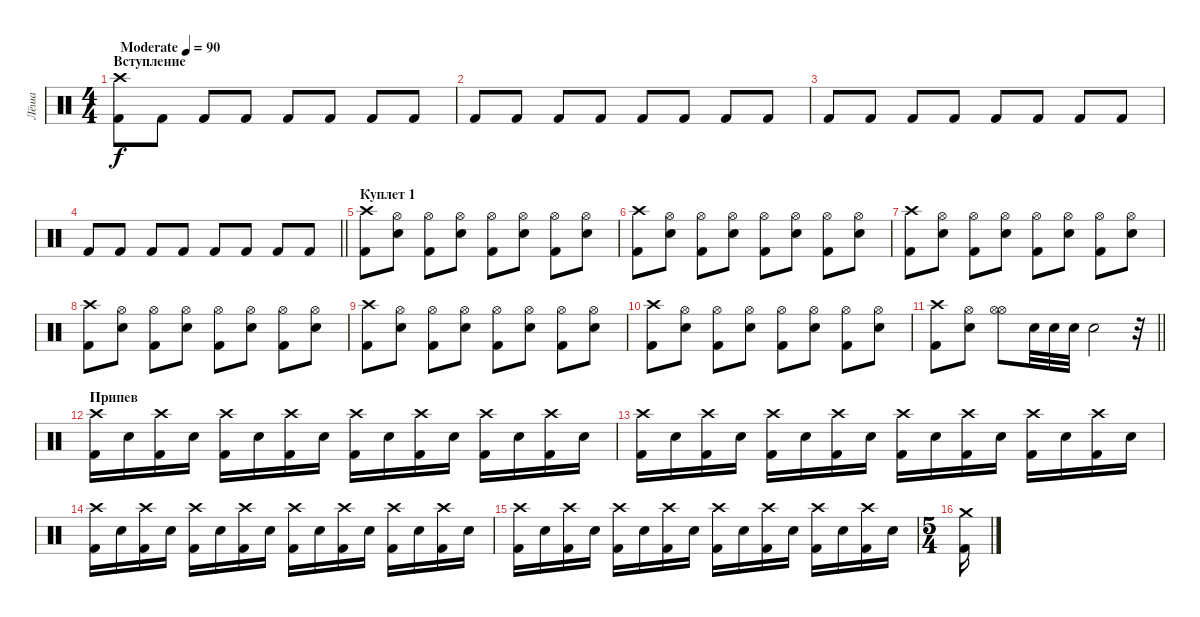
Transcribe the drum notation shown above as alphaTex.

\track ("Лёша" "Лёша") {instrument percussion}
\staff {score}
\articulation defaults
\ts (4 4)
\section ("" "Вступление")
\tempo (90 "Moderate")
\clef neutral
\ks c
("Crash high (hit)" "Kick (hit) 2").8{dy f} "Kick (hit) 2".8 "Kick (hit) 2".8 "Kick (hit) 2".8 "Kick (hit) 2".8 "Kick (hit) 2".8 "Kick (hit) 2".8 "Kick (hit) 2".8 |
"Kick (hit) 2".8 "Kick (hit) 2".8 "Kick (hit) 2".8 "Kick (hit) 2".8 "Kick (hit) 2".8 "Kick (hit) 2".8 "Kick (hit) 2".8 "Kick (hit) 2".8 |
"Kick (hit) 2".8 "Kick (hit) 2".8 "Kick (hit) 2".8 "Kick (hit) 2".8 "Kick (hit) 2".8 "Kick (hit) 2".8 "Kick (hit) 2".8 "Kick (hit) 2".8 |
\barLineRight lightlight "Kick (hit) 2".8 "Kick (hit) 2".8 "Kick (hit) 2".8 "Kick (hit) 2".8 "Kick (hit) 2".8 "Kick (hit) 2".8 "Kick (hit) 2".8 "Kick (hit) 2".8
|
\section ("" "Куплет 1")
("Kick (hit) 2" "Crash high (hit)").8 ("Hi-Hat (open)" "Electric Snare (hit)").8 ("Hi-Hat (open)" "Kick (hit) 2").8 ("Hi-Hat (open)" "Electric Snare (hit)").8 ("Hi-Hat (open)" "Kick (hit) 2").8 ("Hi-Hat (open)" "Electric Snare (hit)").8 ("Hi-Hat (open)" "Kick (hit) 2").8 ("Hi-Hat (open)" "Electric Snare (hit)").8 |
("Kick (hit) 2" "Crash high (hit)").8 ("Hi-Hat (open)" "Electric Snare (hit)").8 ("Hi-Hat (open)" "Kick (hit) 2").8 ("Hi-Hat (open)" "Electric Snare (hit)").8 ("Hi-Hat (open)" "Kick (hit) 2").8 ("Hi-Hat (open)" "Electric Snare (hit)").8 ("Hi-Hat (open)" "Kick (hit) 2").8 ("Hi-Hat (open)" "Electric Snare (hit)").8 |
("Kick (hit) 2" "Crash high (hit)").8 ("Hi-Hat (open)" "Electric Snare (hit)").8 ("Hi-Hat (open)" "Kick (hit) 2").8 ("Hi-Hat (open)" "Electric Snare (hit)").8 ("Hi-Hat (open)" "Kick (hit) 2").8 ("Hi-Hat (open)" "Electric Snare (hit)").8 ("Hi-Hat (open)" "Kick (hit) 2").8 ("Hi-Hat (open)" "Electric Snare (hit)").8 |
("Kick (hit) 2" "Crash high (hit)").8 ("Hi-Hat (open)" "Electric Snare (hit)").8 ("Hi-Hat (open)" "Kick (hit) 2").8 ("Hi-Hat (open)" "Electric Snare (hit)").8 ("Hi-Hat (open)" "Kick (hit) 2").8 ("Hi-Hat (open)" "Electric Snare (hit)").8 ("Hi-Hat (open)" "Kick (hit) 2").8 ("Hi-Hat (open)" "Electric Snare (hit)").8 |
("Kick (hit) 2" "Crash high (hit)").8 ("Hi-Hat (open)" "Electric Snare (hit)").8 ("Hi-Hat (open)" "Kick (hit) 2").8 ("Hi-Hat (open)" "Electric Snare (hit)").8 ("Hi-Hat (open)" "Kick (hit) 2").8 ("Hi-Hat (open)" "Electric Snare (hit)").8 ("Hi-Hat (open)" "Kick (hit) 2").8 ("Hi-Hat (open)" "Electric Snare (hit)").8 |
("Kick (hit) 2" "Crash high (hit)").8 ("Hi-Hat (open)" "Electric Snare (hit)").8 ("Hi-Hat (open)" "Kick (hit) 2").8 ("Hi-Hat (open)" "Electric Snare (hit)").8 ("Hi-Hat (open)" "Kick (hit) 2").8 ("Hi-Hat (open)" "Electric Snare (hit)").8 ("Hi-Hat (open)" "Kick (hit) 2").8 ("Hi-Hat (open)" "Electric Snare (hit)").8 |
\barLineRight lightlight
("Kick (hit) 2" "Crash high (hit)").8 ("Hi-Hat (open)" "Electric Snare (hit)").8 ("Hi-Hat (open)" "Hi-Hat (open)").8 "Electric Snare (hit)".32 "Electric Snare (hit)".32 "Electric Snare (hit)".32 "Electric Snare (hit)".2 r.32 |
\section ("" "Припев")
("Crash high (hit)" "Kick (hit) 2").16 "Electric Snare (hit)".16 ("Crash high (hit)" "Kick (hit) 2").16 "Electric Snare (hit)".16 ("Crash high (hit)" "Kick (hit) 2").16 "Electric Snare (hit)".16 ("Crash high (hit)" "Kick (hit) 2").16 "Electric Snare (hit)".16 ("Crash high (hit)" "Kick (hit) 2").16 "Electric Snare (hit)".16 ("Crash high (hit)" "Kick (hit) 2").16 "Electric Snare (hit)".16 ("Crash high (hit)" "Kick (hit) 2").16 "Electric Snare (hit)".16 ("Crash high (hit)" "Kick (hit) 2").16 "Electric Snare (hit)".16 |
("Crash high (hit)" "Kick (hit) 2").16 "Electric Snare (hit)".16 ("Crash high (hit)" "Kick (hit) 2").16 "Electric Snare (hit)".16 ("Crash high (hit)" "Kick (hit) 2").16 "Electric Snare (hit)".16 ("Crash high (hit)" "Kick (hit) 2").16 "Electric Snare (hit)".16 ("Crash high (hit)" "Kick (hit) 2").16 "Electric Snare (hit)".16 ("Crash high (hit)" "Kick (hit) 2").16 "Electric Snare (hit)".16 ("Crash high (hit)" "Kick (hit) 2").16 "Electric Snare (hit)".16 ("Crash high (hit)" "Kick (hit) 2").16 "Electric Snare (hit)".16 |
("Crash high (hit)" "Kick (hit) 2").16 "Electric Snare (hit)".16 ("Crash high (hit)" "Kick (hit) 2").16 "Electric Snare (hit)".16 ("Crash high (hit)" "Kick (hit) 2").16 "Electric Snare (hit)".16 ("Crash high (hit)" "Kick (hit) 2").16 "Electric Snare (hit)".16 ("Crash high (hit)" "Kick (hit) 2").16 "Electric Snare (hit)".16 ("Crash high (hit)" "Kick (hit) 2").16 "Electric Snare (hit)".16 ("Crash high (hit)" "Kick (hit) 2").16 "Electric Snare (hit)".16 ("Crash high (hit)" "Kick (hit) 2").16 "Electric Snare (hit)".16 |
("Crash high (hit)" "Kick (hit) 2").16 "Electric Snare (hit)".16 ("Crash high (hit)" "Kick (hit) 2").16 "Electric Snare (hit)".16 ("Crash high (hit)" "Kick (hit) 2").16 "Electric Snare (hit)".16 ("Crash high (hit)" "Kick (hit) 2").16 "Electric Snare (hit)".16 ("Crash high (hit)" "Kick (hit) 2").16 "Electric Snare (hit)".16 ("Crash high (hit)" "Kick (hit) 2").16 "Electric Snare (hit)".16 ("Crash high (hit)" "Kick (hit) 2").16 "Electric Snare (hit)".16 ("Crash high (hit)" "Kick (hit) 2").16 "Electric Snare (hit)".16 |
\ts (5 4)
("Kick (hit) 2" "Crash medium (hit)").16
